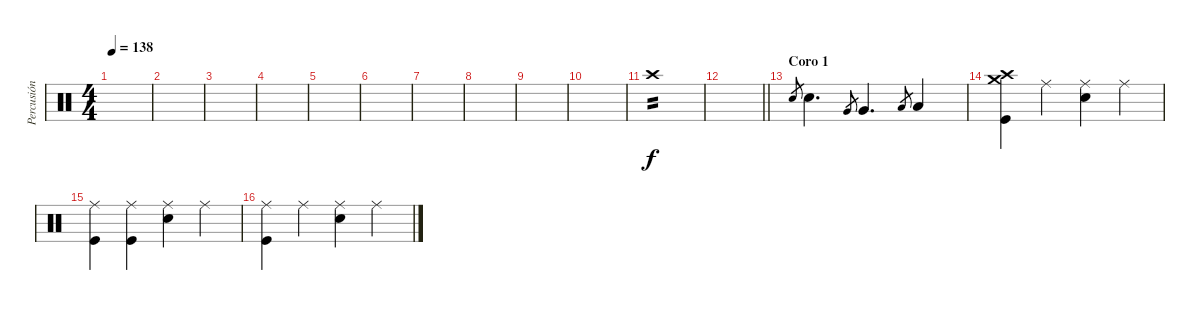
\track ("Percusión" "Percusión") {instrument percussion}
\staff {score}
\articulation defaults
\ts (4 4)
\tempo 138
\clef neutral
\ks c
|
|
|
|
|
|
|
|
|
|
"Crash high (hit)".1{tp 2} |
\barLineRight lightlight
|
\section ("" "Coro 1")
"Electric Snare (hit)".8{gr} "Electric Snare (hit)".4{d} "Very Low Tom (hit)".8{gr} "Very Low Tom (hit)".4{d} "Low Floor Tom (hit)".8{gr} "Low Floor Tom (hit)".4 |
("Crash high (hit)" "Crash medium (hit)" "Kick (hit)").4 "Ride (middle)".4 ("Ride (middle)" "Electric Snare (hit)").4 "Ride (middle)".4 |
("Ride (middle)" "Kick (hit)").4 ("Ride (middle)" "Kick (hit)").4 ("Ride (middle)" "Electric Snare (hit)").4 "Ride (middle)".4 |
("Ride (middle)" "Kick (hit)").4 "Ride (middle)".4 ("Ride (middle)" "Electric Snare (hit)").4 "Ride (middle)".4
